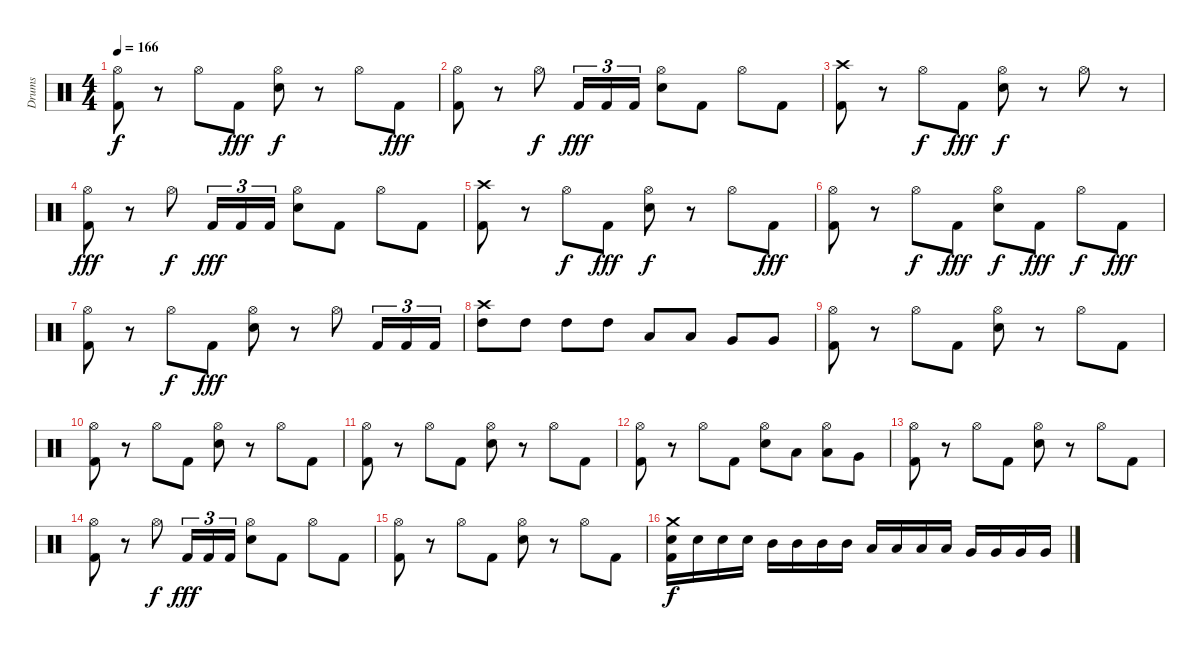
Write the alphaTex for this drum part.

\track ("Drums" "Drums") {instrument percussion}
\staff {score}
\articulation defaults
\ts (4 4)
\tempo 166
\clef neutral
\ks c
("Hi-Hat (open)" "Kick (hit) 2").8{dy f} r.8 "Hi-Hat (open)".8 "Kick (hit) 2".8{dy fff} ("Hi-Hat (open)" "Snare (hit) 2").8{dy f} r.8 "Hi-Hat (open)".8 "Kick (hit) 2".8{dy fff} |
("Hi-Hat (open)" "Kick (hit) 2").8 r.8 "Hi-Hat (open)".8{dy f} "Kick (hit) 2".16{tu (3 2) dy fff} "Kick (hit) 2".16{tu (3 2)} "Kick (hit) 2".16{tu (3 2)} ("Hi-Hat (open)" "Snare (hit) 2").8 "Kick (hit) 2".8 "Hi-Hat (open)".8 "Kick (hit) 2".8 |
("Crash high (hit)" "Kick (hit) 2").8 r.8 "Hi-Hat (open)".8{dy f} "Kick (hit) 2".8{dy fff} ("Hi-Hat (open)" "Snare (hit) 2").8{dy f} r.8 "Hi-Hat (open)".8 r.8 |
("Hi-Hat (open)" "Kick (hit) 2").8{dy fff} r.8 "Hi-Hat (open)".8{dy f} "Kick (hit) 2".16{tu (3 2) dy fff} "Kick (hit) 2".16{tu (3 2)} "Kick (hit) 2".16{tu (3 2)} ("Hi-Hat (open)" "Snare (hit) 2").8 "Kick (hit) 2".8 "Hi-Hat (open)".8 "Kick (hit) 2".8 |
("Crash high (hit)" "Kick (hit) 2").8 r.8 "Hi-Hat (open)".8{dy f} "Kick (hit) 2".8{dy fff} ("Hi-Hat (open)" "Snare (hit) 2").8{dy f} r.8 "Hi-Hat (open)".8 "Kick (hit) 2".8{dy fff} |
("Hi-Hat (open)" "Kick (hit) 2").8 r.8 "Hi-Hat (open)".8{dy f} "Kick (hit) 2".8{dy fff} ("Hi-Hat (open)" "Snare (hit) 2").8{dy f} "Kick (hit) 2".8{dy fff} "Hi-Hat (open)".8{dy f} "Kick (hit) 2".8{dy fff} |
("Hi-Hat (open)" "Kick (hit) 2").8 r.8 "Hi-Hat (open)".8{dy f} "Kick (hit) 2".8{dy fff} ("Hi-Hat (open)" "Snare (hit) 2").8 r.8 "Hi-Hat (open)".8 "Kick (hit) 2".16{tu (3 2)} "Kick (hit) 2".16{tu (3 2)} "Kick (hit) 2".16{tu (3 2)} |
("Crash high (hit)" "High Tom (hit)").8 "High Tom (hit)".8 "High Tom (hit)".8 "High Tom (hit)".8 "Low Tom (hit)".8 "Low Tom (hit)".8 "Very Low Tom (hit)".8 "Very Low Tom (hit)".8 |
("Hi-Hat (open)" "Kick (hit) 2").8 r.8 "Hi-Hat (open)".8 "Kick (hit) 2".8 ("Hi-Hat (open)" "Snare (hit) 2").8 r.8 "Hi-Hat (open)".8 "Kick (hit) 2".8 |
("Hi-Hat (open)" "Kick (hit) 2").8 r.8 "Hi-Hat (open)".8 "Kick (hit) 2".8 ("Hi-Hat (open)" "Snare (hit) 2").8 r.8 "Hi-Hat (open)".8 "Kick (hit) 2".8 |
("Hi-Hat (open)" "Kick (hit) 2").8 r.8 "Hi-Hat (open)".8 "Kick (hit) 2".8 ("Hi-Hat (open)" "Snare (hit) 2").8 r.8 "Hi-Hat (open)".8 "Kick (hit) 2".8 |
("Hi-Hat (open)" "Kick (hit) 2").8 r.8 "Hi-Hat (open)".8 "Kick (hit) 2".8 ("Hi-Hat (open)" "Snare (hit) 2").8 "Low Tom (hit)".8 ("Hi-Hat (open)" "Low Tom (hit)").8 "Very Low Tom (hit)".8 |
("Hi-Hat (open)" "Kick (hit) 2").8 r.8 "Hi-Hat (open)".8 "Kick (hit) 2".8 ("Hi-Hat (open)" "Snare (hit) 2").8 r.8 "Hi-Hat (open)".8 "Kick (hit) 2".8 |
("Hi-Hat (open)" "Kick (hit) 2").8 r.8 "Hi-Hat (open)".8{dy f} "Kick (hit) 2".16{tu (3 2) dy fff} "Kick (hit) 2".16{tu (3 2)} "Kick (hit) 2".16{tu (3 2)} ("Hi-Hat (open)" "Snare (hit) 2").8 "Kick (hit) 2".8 "Hi-Hat (open)".8 "Kick (hit) 2".8 |
("Hi-Hat (open)" "Kick (hit) 2").8 r.8 "Hi-Hat (open)".8 "Kick (hit) 2".8 ("Hi-Hat (open)" "Snare (hit) 2").8 r.8 "Hi-Hat (open)".8 "Kick (hit) 2".8 |
("Crash medium (hit)" "Snare (hit) 2" "Kick (hit) 2").16{dy f} "Snare (hit) 2".16 "Snare (hit) 2".16 "Snare (hit) 2".16 "Mid Tom (hit)".16 "Mid Tom (hit)".16 "Mid Tom (hit)".16 "Mid Tom (hit)".16 "Low Tom (hit)".16 "Low Tom (hit)".16 "Low Tom (hit)".16 "Low Tom (hit)".16 "Very Low Tom (hit)".16 "Very Low Tom (hit)".16 "Very Low Tom (hit)".16 "Very Low Tom (hit)".16
